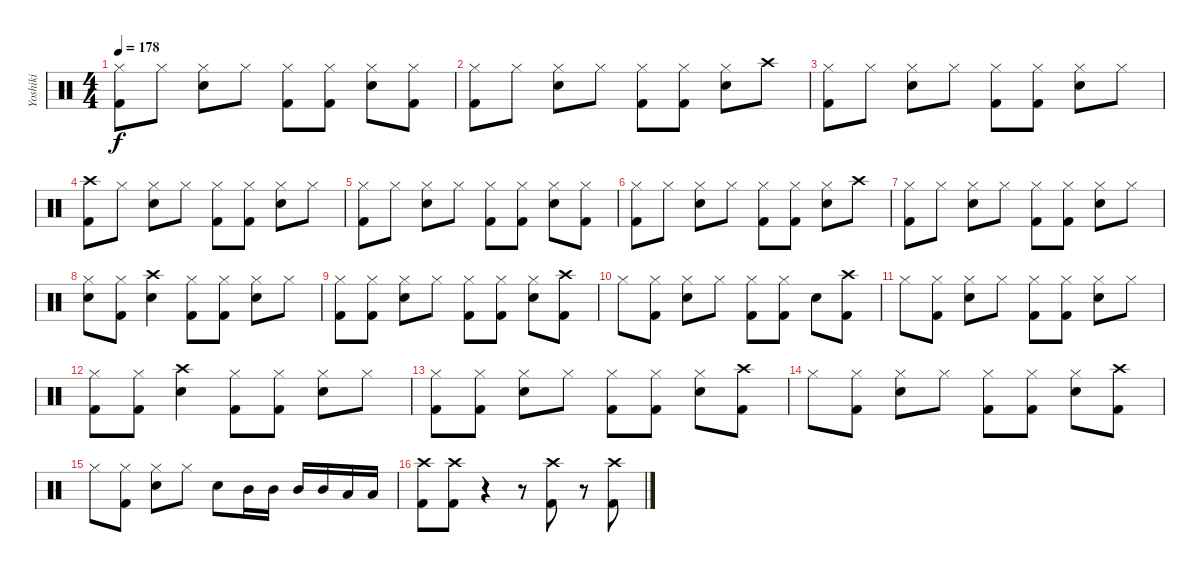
\track ("Yoshiki" "Yoshiki") {instrument percussion}
\staff {score}
\articulation defaults
\ts (4 4)
\tempo 178
\clef neutral
\ks c
("Hi-Hat (closed)" "Kick (hit) 2").8{dy f} "Hi-Hat (closed)".8 ("Hi-Hat (closed)" "Snare (hit) 2").8 "Hi-Hat (closed)".8 ("Hi-Hat (closed)" "Kick (hit) 2").8 ("Hi-Hat (closed)" "Kick (hit) 2").8 ("Hi-Hat (closed)" "Snare (hit) 2").8 ("Hi-Hat (closed)" "Kick (hit) 2").8 |
("Hi-Hat (closed)" "Kick (hit) 2").8 "Hi-Hat (closed)".8 ("Hi-Hat (closed)" "Snare (hit) 2").8 "Hi-Hat (closed)".8 ("Hi-Hat (closed)" "Kick (hit) 2").8 ("Hi-Hat (closed)" "Kick (hit) 2").8 ("Hi-Hat (closed)" "Snare (hit) 2").8 "Crash high (hit)".8 |
("Hi-Hat (closed)" "Kick (hit) 2").8 "Hi-Hat (closed)".8 ("Hi-Hat (closed)" "Snare (hit) 2").8 "Hi-Hat (closed)".8 ("Hi-Hat (closed)" "Kick (hit) 2").8 ("Hi-Hat (closed)" "Kick (hit) 2").8 ("Hi-Hat (closed)" "Snare (hit) 2").8 "Hi-Hat (closed)".8 |
("Crash high (hit)" "Kick (hit) 2").8 "Hi-Hat (closed)".8 ("Hi-Hat (closed)" "Snare (hit) 2").8 "Hi-Hat (closed)".8 ("Hi-Hat (closed)" "Kick (hit) 2").8 ("Hi-Hat (closed)" "Kick (hit) 2").8 ("Hi-Hat (closed)" "Snare (hit) 2").8 "Hi-Hat (closed)".8 |
("Hi-Hat (closed)" "Kick (hit) 2").8 "Hi-Hat (closed)".8 ("Hi-Hat (closed)" "Snare (hit) 2").8 "Hi-Hat (closed)".8 ("Hi-Hat (closed)" "Kick (hit) 2").8 ("Hi-Hat (closed)" "Kick (hit) 2").8 ("Hi-Hat (closed)" "Snare (hit) 2").8 ("Hi-Hat (closed)" "Kick (hit) 2").8 |
("Hi-Hat (closed)" "Kick (hit) 2").8 "Hi-Hat (closed)".8 ("Hi-Hat (closed)" "Snare (hit) 2").8 "Hi-Hat (closed)".8 ("Hi-Hat (closed)" "Kick (hit) 2").8 ("Hi-Hat (closed)" "Kick (hit) 2").8 ("Hi-Hat (closed)" "Snare (hit) 2").8 "Crash high (hit)".8 |
("Hi-Hat (closed)" "Kick (hit) 2").8 "Hi-Hat (closed)".8 ("Hi-Hat (closed)" "Snare (hit) 2").8 "Hi-Hat (closed)".8 ("Hi-Hat (closed)" "Kick (hit) 2").8 ("Hi-Hat (closed)" "Kick (hit) 2").8 ("Hi-Hat (closed)" "Snare (hit) 2").8 "Hi-Hat (closed)".8 |
("Hi-Hat (closed)" "Snare (hit) 2").8 ("Hi-Hat (closed)" "Kick (hit) 2").8 ("Crash high (hit)" "Snare (hit) 2").4 ("Hi-Hat (closed)" "Kick (hit) 2").8 ("Hi-Hat (closed)" "Kick (hit) 2").8 ("Hi-Hat (closed)" "Snare (hit) 2").8 "Hi-Hat (closed)".8 |
("Hi-Hat (closed)" "Kick (hit) 2").8 ("Hi-Hat (closed)" "Kick (hit) 2").8 ("Hi-Hat (closed)" "Snare (hit) 2").8 "Hi-Hat (closed)".8 ("Hi-Hat (closed)" "Kick (hit) 2").8 ("Hi-Hat (closed)" "Kick (hit) 2").8 ("Hi-Hat (closed)" "Snare (hit) 2").8 ("Crash high (hit)" "Kick (hit) 2").8 |
"Hi-Hat (closed)".8 ("Hi-Hat (closed)" "Kick (hit) 2").8 ("Hi-Hat (closed)" "Snare (hit) 2").8 "Hi-Hat (closed)".8 ("Hi-Hat (closed)" "Kick (hit) 2").8 ("Hi-Hat (closed)" "Kick (hit) 2").8 "Snare (hit) 2".8 ("Crash high (hit)" "Kick (hit) 2").8 |
"Hi-Hat (closed)".8 ("Hi-Hat (closed)" "Kick (hit) 2").8 ("Hi-Hat (closed)" "Snare (hit) 2").8 "Hi-Hat (closed)".8 ("Hi-Hat (closed)" "Kick (hit) 2").8 ("Hi-Hat (closed)" "Kick (hit) 2").8 ("Hi-Hat (closed)" "Snare (hit) 2").8 "Hi-Hat (closed)".8 |
("Hi-Hat (closed)" "Kick (hit) 2").8 ("Hi-Hat (closed)" "Kick (hit) 2").8 ("Crash high (hit)" "Snare (hit) 2").4 ("Hi-Hat (closed)" "Kick (hit) 2").8 ("Hi-Hat (closed)" "Kick (hit) 2").8 ("Hi-Hat (closed)" "Snare (hit) 2").8 "Hi-Hat (closed)".8 |
("Hi-Hat (closed)" "Kick (hit) 2").8 ("Hi-Hat (closed)" "Kick (hit) 2").8 ("Hi-Hat (closed)" "Snare (hit) 2").8 "Hi-Hat (closed)".8 ("Hi-Hat (closed)" "Kick (hit) 2").8 ("Hi-Hat (closed)" "Kick (hit) 2").8 ("Hi-Hat (closed)" "Snare (hit) 2").8 ("Crash high (hit)" "Kick (hit) 2").8 |
"Hi-Hat (closed)".8 ("Hi-Hat (closed)" "Kick (hit) 2").8 ("Hi-Hat (closed)" "Snare (hit) 2").8 "Hi-Hat (closed)".8 ("Hi-Hat (closed)" "Kick (hit) 2").8 ("Hi-Hat (closed)" "Kick (hit) 2").8 ("Hi-Hat (closed)" "Snare (hit) 2").8 ("Crash high (hit)" "Kick (hit) 2").8 |
"Hi-Hat (closed)".8 ("Hi-Hat (closed)" "Kick (hit) 2").8 ("Hi-Hat (closed)" "Snare (hit) 2").8 "Hi-Hat (closed)".8 "Snare (hit) 2".8 "Mid Tom (hit)".16 "Mid Tom (hit)".16 "Mid Tom (hit)".16 "Mid Tom (hit)".16 "Low Tom (hit)".16 "Low Tom (hit)".16 |
("Crash high (hit)" "Kick (hit) 2").8 ("Crash high (hit)" "Kick (hit) 2").8 r.4 r.8 ("Crash high (hit)" "Kick (hit) 2").8 r.8 ("Crash high (hit)" "Kick (hit) 2").8
